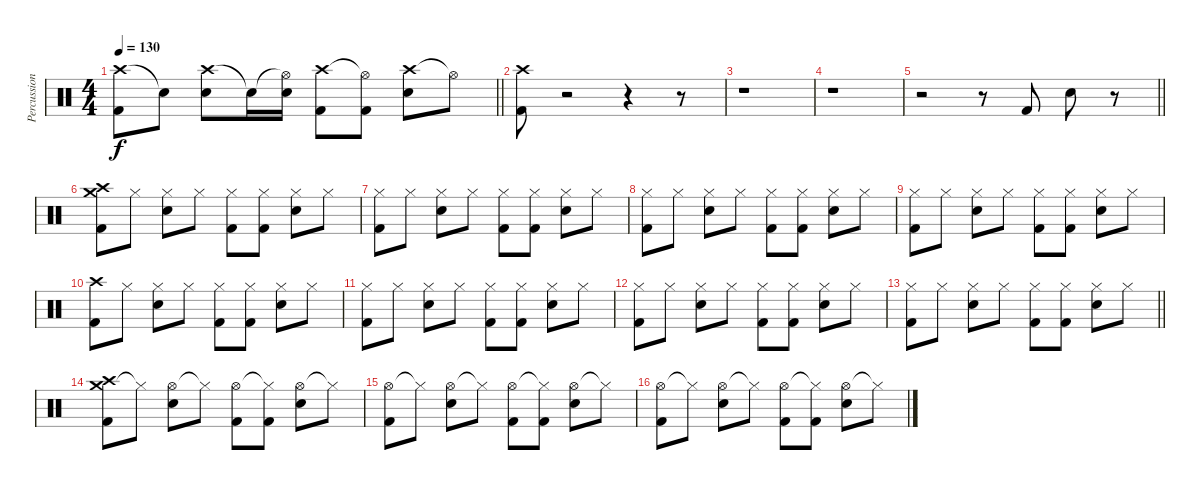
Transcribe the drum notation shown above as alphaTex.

\track ("Percussion" "Percussion") {instrument percussion}
\staff {score}
\articulation defaults
\ts (4 4)
\tempo 130
\clef neutral
\barLineRight lightlight
\ks c
("Crash high (hit)" "Kick (hit) 2").8{dy f} "Snare (hit)"{t}.8 ("Crash high (hit)" "Electric Snare (hit)").8 "Snare (hit)"{t}.16 ("Hi-Hat (open)"{t} "Electric Snare (hit)").16 ("Crash high (hit)" "Kick (hit) 2").8 ("Hi-Hat (open)"{t} "Kick (hit) 2").8 ("Crash high (hit)" "Electric Snare (hit)").8 "Hi-Hat (open)"{t}.8 |
("Crash high (hit)" "Kick (hit) 2").8 r.2 r.4 r.8 |
r.1 |
r.1 |
\barLineRight lightlight
r.2 r.8 "Kick (hit) 2".8 "Electric Snare (hit)".8 r.8 |
("Crash medium (hit)" "Crash high (hit)" "Kick (hit) 2").8 "Hi-Hat (closed)".8 ("Hi-Hat (closed)" "Electric Snare (hit)").8 "Hi-Hat (closed)".8 ("Hi-Hat (closed)" "Kick (hit) 2").8 ("Hi-Hat (closed)" "Kick (hit) 2").8 ("Hi-Hat (closed)" "Electric Snare (hit)").8 "Hi-Hat (closed)".8 |
("Hi-Hat (closed)" "Kick (hit) 2").8 "Hi-Hat (closed)".8 ("Hi-Hat (closed)" "Electric Snare (hit)").8 "Hi-Hat (closed)".8 ("Hi-Hat (closed)" "Kick (hit) 2").8 ("Hi-Hat (closed)" "Kick (hit) 2").8 ("Hi-Hat (closed)" "Electric Snare (hit)").8 "Hi-Hat (closed)".8 |
("Hi-Hat (closed)" "Kick (hit) 2").8 "Hi-Hat (closed)".8 ("Hi-Hat (closed)" "Electric Snare (hit)").8 "Hi-Hat (closed)".8 ("Hi-Hat (closed)" "Kick (hit) 2").8 ("Hi-Hat (closed)" "Kick (hit) 2").8 ("Hi-Hat (closed)" "Electric Snare (hit)").8 "Hi-Hat (closed)".8 |
("Hi-Hat (closed)" "Kick (hit) 2").8 "Hi-Hat (closed)".8 ("Hi-Hat (closed)" "Electric Snare (hit)").8 "Hi-Hat (closed)".8 ("Hi-Hat (closed)" "Kick (hit) 2").8 ("Hi-Hat (closed)" "Kick (hit) 2").8 ("Hi-Hat (closed)" "Electric Snare (hit)").8 "Hi-Hat (closed)".8 |
("Crash high (hit)" "Kick (hit) 2").8 "Hi-Hat (closed)".8 ("Hi-Hat (closed)" "Electric Snare (hit)").8 "Hi-Hat (closed)".8 ("Hi-Hat (closed)" "Kick (hit) 2").8 ("Hi-Hat (closed)" "Kick (hit) 2").8 ("Hi-Hat (closed)" "Electric Snare (hit)").8 "Hi-Hat (closed)".8 |
("Hi-Hat (closed)" "Kick (hit) 2").8 "Hi-Hat (closed)".8 ("Hi-Hat (closed)" "Electric Snare (hit)").8 "Hi-Hat (closed)".8 ("Hi-Hat (closed)" "Kick (hit) 2").8 ("Hi-Hat (closed)" "Kick (hit) 2").8 ("Hi-Hat (closed)" "Electric Snare (hit)").8 "Hi-Hat (closed)".8 |
("Hi-Hat (closed)" "Kick (hit) 2").8 "Hi-Hat (closed)".8 ("Hi-Hat (closed)" "Electric Snare (hit)").8 "Hi-Hat (closed)".8 ("Hi-Hat (closed)" "Kick (hit) 2").8 ("Hi-Hat (closed)" "Kick (hit) 2").8 ("Hi-Hat (closed)" "Electric Snare (hit)").8 "Hi-Hat (closed)".8 |
\barLineRight lightlight
("Hi-Hat (closed)" "Kick (hit) 2").8 "Hi-Hat (closed)".8 ("Hi-Hat (closed)" "Electric Snare (hit)").8 "Hi-Hat (closed)".8 ("Hi-Hat (closed)" "Kick (hit) 2").8 ("Hi-Hat (closed)" "Kick (hit) 2").8 ("Hi-Hat (closed)" "Electric Snare (hit)").8 "Hi-Hat (closed)".8 |
("Crash medium (hit)" "Crash high (hit)" "Kick (hit) 2").8 "Hi-Hat (closed)"{t}.8 ("Hi-Hat (open)" "Electric Snare (hit)").8 "Hi-Hat (closed)"{t}.8 ("Hi-Hat (open)" "Kick (hit) 2").8 ("Hi-Hat (closed)"{t} "Kick (hit) 2").8 ("Hi-Hat (open)" "Electric Snare (hit)").8 "Hi-Hat (closed)"{t}.8 |
("Hi-Hat (open)" "Kick (hit) 2").8 "Hi-Hat (closed)"{t}.8 ("Hi-Hat (open)" "Electric Snare (hit)").8 "Hi-Hat (closed)"{t}.8 ("Hi-Hat (open)" "Kick (hit) 2").8 ("Hi-Hat (closed)"{t} "Kick (hit) 2").8 ("Hi-Hat (open)" "Electric Snare (hit)").8 "Hi-Hat (closed)"{t}.8 |
("Hi-Hat (open)" "Kick (hit) 2").8 "Hi-Hat (closed)"{t}.8 ("Hi-Hat (open)" "Electric Snare (hit)").8 "Hi-Hat (closed)"{t}.8 ("Hi-Hat (open)" "Kick (hit) 2").8 ("Hi-Hat (closed)"{t} "Kick (hit) 2").8 ("Hi-Hat (open)" "Electric Snare (hit)").8 "Hi-Hat (closed)"{t}.8
